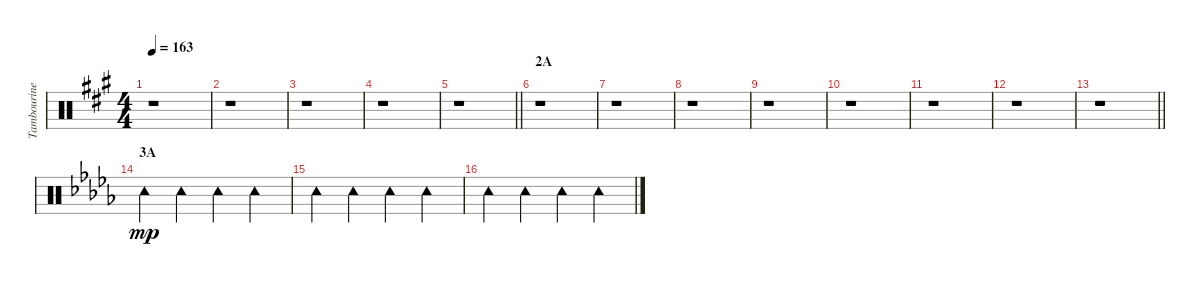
\track ("Tambourine" "Tambourine") {instrument percussion}
\staff {score}
\articulation defaults
\ts (4 4)
\tempo 163
\clef neutral
\ks a
r.1{dy mp} |
r.1 |
r.1 |
r.1 |
\barLineRight lightlight
r.1 |
\section ("" "2A")
r.1 |
r.1 |
r.1 |
r.1 |
r.1 |
r.1 |
r.1 |
\barLineRight lightlight
r.1 |
\section ("" "3A")
\ks db "Tambourine (hit)".4 "Tambourine (hit)".4 "Tambourine (hit)".4 "Tambourine (hit)".4
|
"Tambourine (hit)".4 "Tambourine (hit)".4 "Tambourine (hit)".4 "Tambourine (hit)".4 |
"Tambourine (hit)".4 "Tambourine (hit)".4 "Tambourine (hit)".4 "Tambourine (hit)".4
